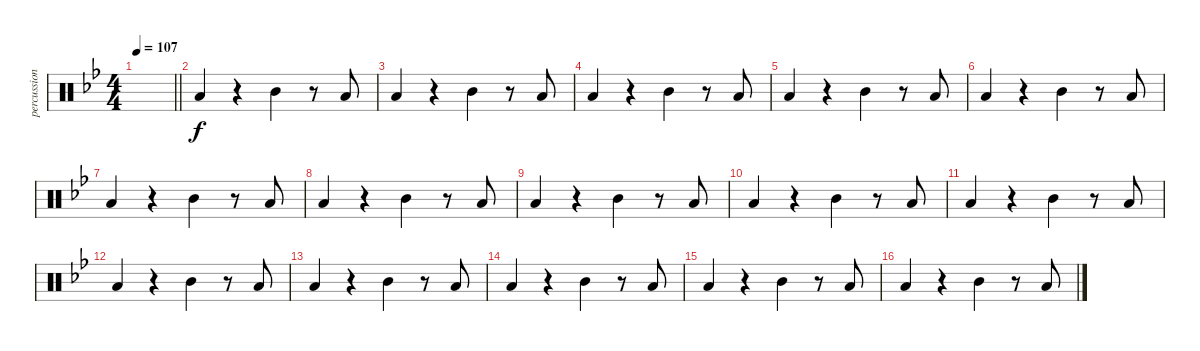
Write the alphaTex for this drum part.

\track ("percussions" "percussion") {instrument percussion}
\staff {score}
\articulation defaults
\ts (4 4)
\tempo 107
\clef neutral
\barLineRight lightlight
\ks bb
|
"Low Floor Tom (hit)".4 r.4 "Mid Tom (hit)".4 r.8 "Low Floor Tom (hit)".8 |
"Low Floor Tom (hit)".4 r.4 "Mid Tom (hit)".4 r.8 "Low Floor Tom (hit)".8 |
"Low Floor Tom (hit)".4 r.4 "Mid Tom (hit)".4 r.8 "Low Floor Tom (hit)".8 |
"Low Floor Tom (hit)".4 r.4 "Mid Tom (hit)".4 r.8 "Low Floor Tom (hit)".8 |
"Low Floor Tom (hit)".4 r.4 "Mid Tom (hit)".4 r.8 "Low Floor Tom (hit)".8 |
"Low Floor Tom (hit)".4 r.4 "Mid Tom (hit)".4 r.8 "Low Floor Tom (hit)".8 |
"Low Floor Tom (hit)".4 r.4 "Mid Tom (hit)".4 r.8 "Low Floor Tom (hit)".8 |
"Low Floor Tom (hit)".4 r.4 "Mid Tom (hit)".4 r.8 "Low Floor Tom (hit)".8 |
"Low Floor Tom (hit)".4 r.4 "Mid Tom (hit)".4 r.8 "Low Floor Tom (hit)".8 |
"Low Floor Tom (hit)".4 r.4 "Mid Tom (hit)".4 r.8 "Low Floor Tom (hit)".8 |
"Low Floor Tom (hit)".4 r.4 "Mid Tom (hit)".4 r.8 "Low Floor Tom (hit)".8 |
"Low Floor Tom (hit)".4 r.4 "Mid Tom (hit)".4 r.8 "Low Floor Tom (hit)".8 |
"Low Floor Tom (hit)".4 r.4 "Mid Tom (hit)".4 r.8 "Low Floor Tom (hit)".8 |
"Low Floor Tom (hit)".4 r.4 "Mid Tom (hit)".4 r.8 "Low Floor Tom (hit)".8 |
"Low Floor Tom (hit)".4 r.4 "Mid Tom (hit)".4 r.8 "Low Floor Tom (hit)".8
